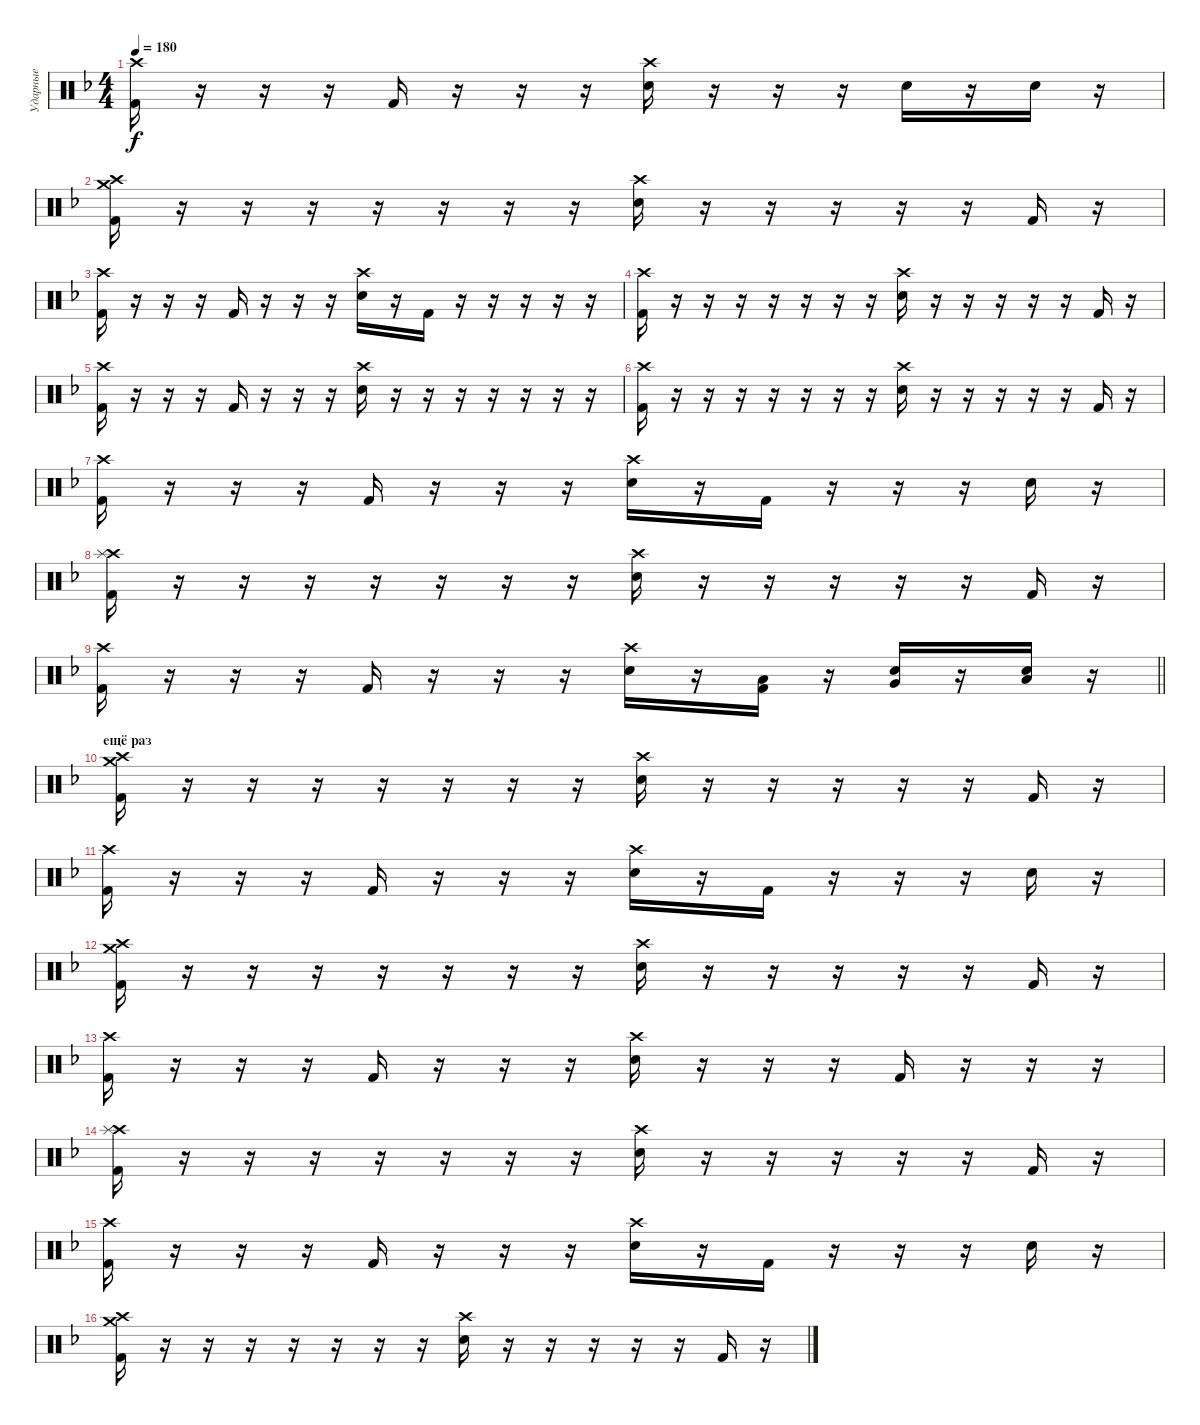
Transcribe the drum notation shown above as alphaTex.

\track ("Ударные" "Ударные") {instrument percussion}
\staff {score}
\articulation defaults
\ts (4 4)
\tempo 180
\clef neutral
\ks dminor
("Crash high (hit)" "Kick (hit) 2").16{dy f} r.16 r.16 r.16 "Kick (hit) 2".16 r.16 r.16 r.16 ("Crash high (hit)" "Electric Snare (hit)").16 r.16 r.16 r.16 "Electric Snare (hit)".16 r.16 "Electric Snare (hit)".16 r.16 |
("Crash high (hit)" "Crash medium (hit)" "Kick (hit) 2").16 r.16 r.16 r.16 r.16 r.16 r.16 r.16 ("Crash high (hit)" "Electric Snare (hit)").16 r.16 r.16 r.16 r.16 r.16 "Kick (hit) 2".16 r.16 |
("Crash high (hit)" "Kick (hit) 2").16 r.16 r.16 r.16 "Kick (hit) 2".16 r.16 r.16 r.16 ("Crash high (hit)" "Electric Snare (hit)").16 r.16 "Kick (hit) 2".16 r.16 r.16 r.16 r.16 r.16 |
("Crash high (hit)" "Kick (hit) 2").16 r.16 r.16 r.16 r.16 r.16 r.16 r.16 ("Crash high (hit)" "Electric Snare (hit)").16 r.16 r.16 r.16 r.16 r.16 "Kick (hit) 2".16 r.16 |
("Crash high (hit)" "Kick (hit) 2").16 r.16 r.16 r.16 "Kick (hit) 2".16 r.16 r.16 r.16 ("Crash high (hit)" "Electric Snare (hit)").16 r.16 r.16 r.16 r.16 r.16 r.16 r.16 |
("Crash high (hit)" "Kick (hit) 2").16 r.16 r.16 r.16 r.16 r.16 r.16 r.16 ("Crash high (hit)" "Electric Snare (hit)").16 r.16 r.16 r.16 r.16 r.16 "Kick (hit) 2".16 r.16 |
("Crash high (hit)" "Kick (hit) 2").16 r.16 r.16 r.16 "Kick (hit) 2".16 r.16 r.16 r.16 ("Crash high (hit)" "Electric Snare (hit)").16 r.16 "Kick (hit) 2".16 r.16 r.16 r.16 "Electric Snare (hit)".16 r.16 |
("Crash high (hit)" "Splash (hit)" "Kick (hit) 2").16 r.16 r.16 r.16 r.16 r.16 r.16 r.16 ("Crash high (hit)" "Electric Snare (hit)").16 r.16 r.16 r.16 r.16 r.16 "Kick (hit) 2".16 r.16 |
\barLineRight lightlight
("Crash high (hit)" "Kick (hit) 2").16 r.16 r.16 r.16 "Kick (hit) 2".16 r.16 r.16 r.16 ("Crash high (hit)" "Electric Snare (hit)").16 r.16 ("Low Tom (hit)" "Kick (hit) 2").16 r.16 ("Electric Snare (hit)" "Very Low Tom (hit)").16 r.16 ("Electric Snare (hit)" "Low Floor Tom (hit)").16 r.16 |
\section ("" "ещё раз")
("Crash high (hit)" "Crash medium (hit)" "Kick (hit) 2").16 r.16 r.16 r.16 r.16 r.16 r.16 r.16 ("Crash high (hit)" "Electric Snare (hit)").16 r.16 r.16 r.16 r.16 r.16 "Kick (hit) 2".16 r.16 |
("Crash high (hit)" "Kick (hit) 2").16 r.16 r.16 r.16 "Kick (hit) 2".16 r.16 r.16 r.16 ("Crash high (hit)" "Electric Snare (hit)").16 r.16 "Kick (hit) 2".16 r.16 r.16 r.16 "Electric Snare (hit)".16 r.16 |
("Crash high (hit)" "Crash medium (hit)" "Kick (hit) 2").16 r.16 r.16 r.16 r.16 r.16 r.16 r.16 ("Crash high (hit)" "Electric Snare (hit)").16 r.16 r.16 r.16 r.16 r.16 "Kick (hit) 2".16 r.16 |
("Crash high (hit)" "Kick (hit) 2").16 r.16 r.16 r.16 "Kick (hit) 2".16 r.16 r.16 r.16 ("Crash high (hit)" "Electric Snare (hit)").16 r.16 r.16 r.16 "Kick (hit) 2".16 r.16 r.16 r.16 |
("Crash high (hit)" "Splash (hit)" "Kick (hit) 2").16 r.16 r.16 r.16 r.16 r.16 r.16 r.16 ("Crash high (hit)" "Electric Snare (hit)").16 r.16 r.16 r.16 r.16 r.16 "Kick (hit) 2".16 r.16 |
("Crash high (hit)" "Kick (hit) 2").16 r.16 r.16 r.16 "Kick (hit) 2".16 r.16 r.16 r.16 ("Crash high (hit)" "Electric Snare (hit)").16 r.16 "Kick (hit) 2".16 r.16 r.16 r.16 "Electric Snare (hit)".16 r.16 |
("Crash high (hit)" "Crash medium (hit)" "Kick (hit) 2").16 r.16 r.16 r.16 r.16 r.16 r.16 r.16 ("Crash high (hit)" "Electric Snare (hit)").16 r.16 r.16 r.16 r.16 r.16 "Kick (hit) 2".16 r.16
